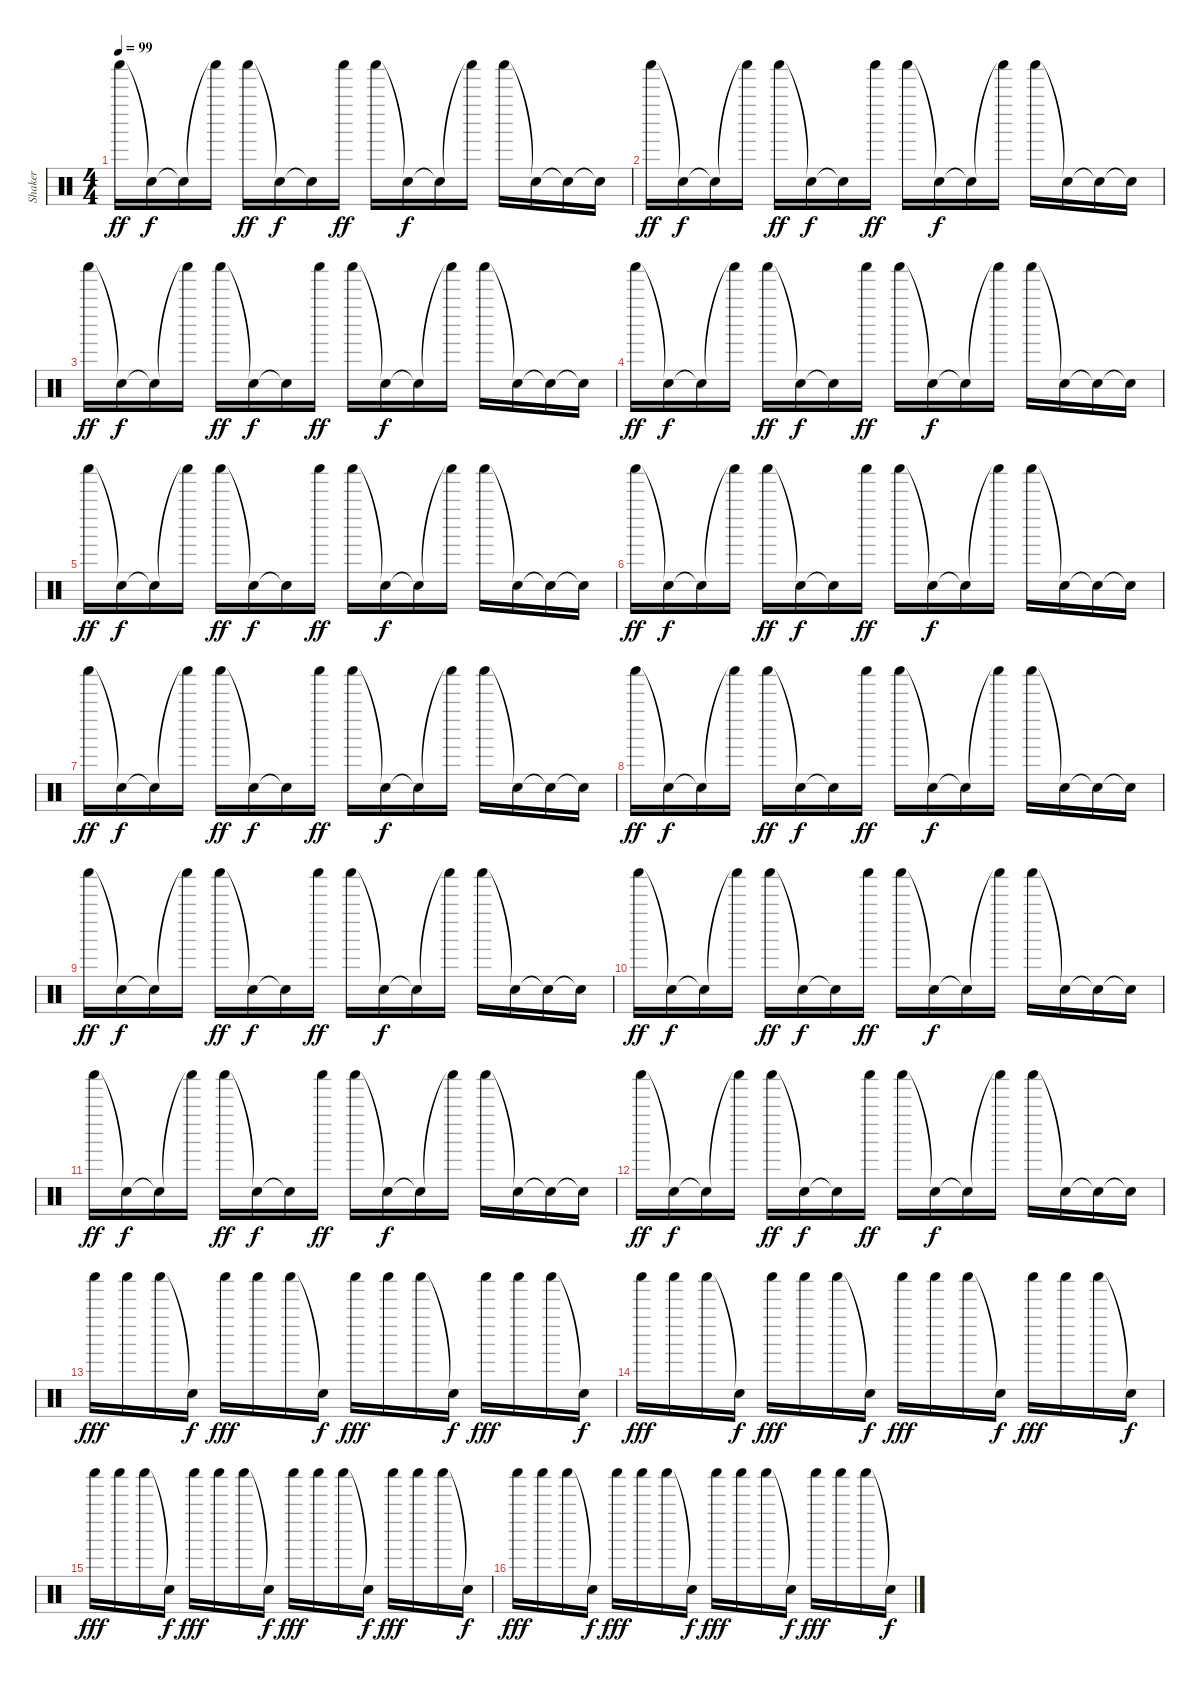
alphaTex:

\track ("Shaker" "Shaker") {instrument percussion}
\staff {score}
\articulation defaults
\ts (4 4)
\tempo 99
\clef neutral
\ks c "Shaker (hit)".16{dy ff} "Snare (hit)"{t}.16{dy f} "Snare (hit)"{t}.16 "Shaker (hit)"{t}.16 "Shaker (hit)".16{dy ff} "Snare (hit)"{t}.16{dy f} "Snare (hit)"{t}.16 "Shaker (hit)".16{dy ff} "Shaker (hit)".16 "Snare (hit)"{t}.16{dy f} "Snare (hit)"{t}.16 "Shaker (hit)"{t}.16 "Shaker (hit)".16 "Snare (hit)"{t}.16 "Snare (hit)"{t}.16 "Snare (hit)"{t}.16
|
"Shaker (hit)".16{dy ff} "Snare (hit)"{t}.16{dy f} "Snare (hit)"{t}.16 "Shaker (hit)"{t}.16 "Shaker (hit)".16{dy ff} "Snare (hit)"{t}.16{dy f} "Snare (hit)"{t}.16 "Shaker (hit)".16{dy ff} "Shaker (hit)".16 "Snare (hit)"{t}.16{dy f} "Snare (hit)"{t}.16 "Shaker (hit)"{t}.16 "Shaker (hit)".16 "Snare (hit)"{t}.16 "Snare (hit)"{t}.16 "Snare (hit)"{t}.16 |
"Shaker (hit)".16{dy ff} "Snare (hit)"{t}.16{dy f} "Snare (hit)"{t}.16 "Shaker (hit)"{t}.16 "Shaker (hit)".16{dy ff} "Snare (hit)"{t}.16{dy f} "Snare (hit)"{t}.16 "Shaker (hit)".16{dy ff} "Shaker (hit)".16 "Snare (hit)"{t}.16{dy f} "Snare (hit)"{t}.16 "Shaker (hit)"{t}.16 "Shaker (hit)".16 "Snare (hit)"{t}.16 "Snare (hit)"{t}.16 "Snare (hit)"{t}.16 |
"Shaker (hit)".16{dy ff} "Snare (hit)"{t}.16{dy f} "Snare (hit)"{t}.16 "Shaker (hit)"{t}.16 "Shaker (hit)".16{dy ff} "Snare (hit)"{t}.16{dy f} "Snare (hit)"{t}.16 "Shaker (hit)".16{dy ff} "Shaker (hit)".16 "Snare (hit)"{t}.16{dy f} "Snare (hit)"{t}.16 "Shaker (hit)"{t}.16 "Shaker (hit)".16 "Snare (hit)"{t}.16 "Snare (hit)"{t}.16 "Snare (hit)"{t}.16 |
"Shaker (hit)".16{dy ff} "Snare (hit)"{t}.16{dy f} "Snare (hit)"{t}.16 "Shaker (hit)"{t}.16 "Shaker (hit)".16{dy ff} "Snare (hit)"{t}.16{dy f} "Snare (hit)"{t}.16 "Shaker (hit)".16{dy ff} "Shaker (hit)".16 "Snare (hit)"{t}.16{dy f} "Snare (hit)"{t}.16 "Shaker (hit)"{t}.16 "Shaker (hit)".16 "Snare (hit)"{t}.16 "Snare (hit)"{t}.16 "Snare (hit)"{t}.16 |
"Shaker (hit)".16{dy ff} "Snare (hit)"{t}.16{dy f} "Snare (hit)"{t}.16 "Shaker (hit)"{t}.16 "Shaker (hit)".16{dy ff} "Snare (hit)"{t}.16{dy f} "Snare (hit)"{t}.16 "Shaker (hit)".16{dy ff} "Shaker (hit)".16 "Snare (hit)"{t}.16{dy f} "Snare (hit)"{t}.16 "Shaker (hit)"{t}.16 "Shaker (hit)".16 "Snare (hit)"{t}.16 "Snare (hit)"{t}.16 "Snare (hit)"{t}.16 |
"Shaker (hit)".16{dy ff} "Snare (hit)"{t}.16{dy f} "Snare (hit)"{t}.16 "Shaker (hit)"{t}.16 "Shaker (hit)".16{dy ff} "Snare (hit)"{t}.16{dy f} "Snare (hit)"{t}.16 "Shaker (hit)".16{dy ff} "Shaker (hit)".16 "Snare (hit)"{t}.16{dy f} "Snare (hit)"{t}.16 "Shaker (hit)"{t}.16 "Shaker (hit)".16 "Snare (hit)"{t}.16 "Snare (hit)"{t}.16 "Snare (hit)"{t}.16 |
"Shaker (hit)".16{dy ff} "Snare (hit)"{t}.16{dy f} "Snare (hit)"{t}.16 "Shaker (hit)"{t}.16 "Shaker (hit)".16{dy ff} "Snare (hit)"{t}.16{dy f} "Snare (hit)"{t}.16 "Shaker (hit)".16{dy ff} "Shaker (hit)".16 "Snare (hit)"{t}.16{dy f} "Snare (hit)"{t}.16 "Shaker (hit)"{t}.16 "Shaker (hit)".16 "Snare (hit)"{t}.16 "Snare (hit)"{t}.16 "Snare (hit)"{t}.16 |
"Shaker (hit)".16{dy ff} "Snare (hit)"{t}.16{dy f} "Snare (hit)"{t}.16 "Shaker (hit)"{t}.16 "Shaker (hit)".16{dy ff} "Snare (hit)"{t}.16{dy f} "Snare (hit)"{t}.16 "Shaker (hit)".16{dy ff} "Shaker (hit)".16 "Snare (hit)"{t}.16{dy f} "Snare (hit)"{t}.16 "Shaker (hit)"{t}.16 "Shaker (hit)".16 "Snare (hit)"{t}.16 "Snare (hit)"{t}.16 "Snare (hit)"{t}.16 |
"Shaker (hit)".16{dy ff} "Snare (hit)"{t}.16{dy f} "Snare (hit)"{t}.16 "Shaker (hit)"{t}.16 "Shaker (hit)".16{dy ff} "Snare (hit)"{t}.16{dy f} "Snare (hit)"{t}.16 "Shaker (hit)".16{dy ff} "Shaker (hit)".16 "Snare (hit)"{t}.16{dy f} "Snare (hit)"{t}.16 "Shaker (hit)"{t}.16 "Shaker (hit)".16 "Snare (hit)"{t}.16 "Snare (hit)"{t}.16 "Snare (hit)"{t}.16 |
"Shaker (hit)".16{dy ff} "Snare (hit)"{t}.16{dy f} "Snare (hit)"{t}.16 "Shaker (hit)"{t}.16 "Shaker (hit)".16{dy ff} "Snare (hit)"{t}.16{dy f} "Snare (hit)"{t}.16 "Shaker (hit)".16{dy ff} "Shaker (hit)".16 "Snare (hit)"{t}.16{dy f} "Snare (hit)"{t}.16 "Shaker (hit)"{t}.16 "Shaker (hit)".16 "Snare (hit)"{t}.16 "Snare (hit)"{t}.16 "Snare (hit)"{t}.16 |
"Shaker (hit)".16{dy ff} "Snare (hit)"{t}.16{dy f} "Snare (hit)"{t}.16 "Shaker (hit)"{t}.16 "Shaker (hit)".16{dy ff} "Snare (hit)"{t}.16{dy f} "Snare (hit)"{t}.16 "Shaker (hit)".16{dy ff} "Shaker (hit)".16 "Snare (hit)"{t}.16{dy f} "Snare (hit)"{t}.16 "Shaker (hit)"{t}.16 "Shaker (hit)".16 "Snare (hit)"{t}.16 "Snare (hit)"{t}.16 "Snare (hit)"{t}.16 |
"Shaker (hit)".16{dy fff} "Shaker (hit)".16 "Shaker (hit)".16 "Snare (hit)"{t}.16{dy f} "Shaker (hit)".16{dy fff} "Shaker (hit)".16 "Shaker (hit)".16 "Snare (hit)"{t}.16{dy f} "Shaker (hit)".16{dy fff} "Shaker (hit)".16 "Shaker (hit)".16 "Snare (hit)"{t}.16{dy f} "Shaker (hit)".16{dy fff} "Shaker (hit)".16 "Shaker (hit)".16 "Snare (hit)"{t}.16{dy f} |
"Shaker (hit)".16{dy fff} "Shaker (hit)".16 "Shaker (hit)".16 "Snare (hit)"{t}.16{dy f} "Shaker (hit)".16{dy fff} "Shaker (hit)".16 "Shaker (hit)".16 "Snare (hit)"{t}.16{dy f} "Shaker (hit)".16{dy fff} "Shaker (hit)".16 "Shaker (hit)".16 "Snare (hit)"{t}.16{dy f} "Shaker (hit)".16{dy fff} "Shaker (hit)".16 "Shaker (hit)".16 "Snare (hit)"{t}.16{dy f} |
"Shaker (hit)".16{dy fff} "Shaker (hit)".16 "Shaker (hit)".16 "Snare (hit)"{t}.16{dy f} "Shaker (hit)".16{dy fff} "Shaker (hit)".16 "Shaker (hit)".16 "Snare (hit)"{t}.16{dy f} "Shaker (hit)".16{dy fff} "Shaker (hit)".16 "Shaker (hit)".16 "Snare (hit)"{t}.16{dy f} "Shaker (hit)".16{dy fff} "Shaker (hit)".16 "Shaker (hit)".16 "Snare (hit)"{t}.16{dy f} |
"Shaker (hit)".16{dy fff} "Shaker (hit)".16 "Shaker (hit)".16 "Snare (hit)"{t}.16{dy f} "Shaker (hit)".16{dy fff} "Shaker (hit)".16 "Shaker (hit)".16 "Snare (hit)"{t}.16{dy f} "Shaker (hit)".16{dy fff} "Shaker (hit)".16 "Shaker (hit)".16 "Snare (hit)"{t}.16{dy f} "Shaker (hit)".16{dy fff} "Shaker (hit)".16 "Shaker (hit)".16 "Snare (hit)"{t}.16{dy f}
